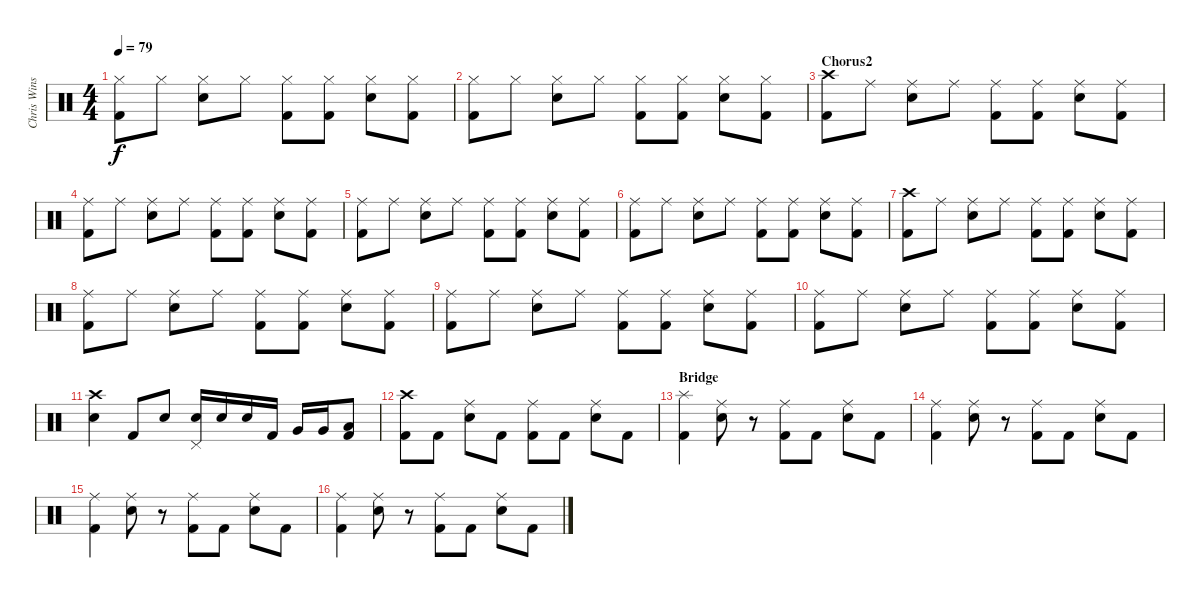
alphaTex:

\track ("Chris Winship (Drums)" "Chris Wins") {instrument percussion}
\staff {score}
\articulation defaults
\ts (4 4)
\tempo 79
\clef neutral
\ks c
("Hi-Hat (closed)" "Kick (hit) 2").8{dy f} "Hi-Hat (closed)".8 ("Hi-Hat (closed)" "Snare (hit) 2").8 "Hi-Hat (closed)".8 ("Hi-Hat (closed)" "Kick (hit) 2").8 ("Hi-Hat (closed)" "Kick (hit) 2").8 ("Hi-Hat (closed)" "Snare (hit) 2").8 ("Hi-Hat (closed)" "Kick (hit) 2").8 |
("Hi-Hat (closed)" "Kick (hit) 2").8 "Hi-Hat (closed)".8 ("Hi-Hat (closed)" "Snare (hit) 2").8 "Hi-Hat (closed)".8 ("Hi-Hat (closed)" "Kick (hit) 2").8 ("Hi-Hat (closed)" "Kick (hit) 2").8 ("Hi-Hat (closed)" "Snare (hit) 2").8 ("Hi-Hat (closed)" "Kick (hit) 2").8 |
\section ("" "Chorus2")
("Crash high (hit)" "Kick (hit) 2").8 "Ride (middle)".8 ("Ride (middle)" "Snare (hit) 2").8 "Ride (middle)".8 ("Ride (middle)" "Kick (hit) 2").8 ("Ride (middle)" "Kick (hit) 2").8 ("Ride (middle)" "Snare (hit) 2").8 ("Ride (middle)" "Kick (hit) 2").8 |
("Ride (middle)" "Kick (hit) 2").8 "Ride (middle)".8 ("Ride (middle)" "Snare (hit) 2").8 "Ride (middle)".8 ("Ride (middle)" "Kick (hit) 2").8 ("Ride (middle)" "Kick (hit) 2").8 ("Ride (middle)" "Snare (hit) 2").8 ("Ride (middle)" "Kick (hit) 2").8 |
("Ride (middle)" "Kick (hit) 2").8 "Ride (middle)".8 ("Ride (middle)" "Snare (hit) 2").8 "Ride (middle)".8 ("Ride (middle)" "Kick (hit) 2").8 ("Ride (middle)" "Kick (hit) 2").8 ("Ride (middle)" "Snare (hit) 2").8 ("Ride (middle)" "Kick (hit) 2").8 |
("Ride (middle)" "Kick (hit) 2").8 "Ride (middle)".8 ("Ride (middle)" "Snare (hit) 2").8 "Ride (middle)".8 ("Ride (middle)" "Kick (hit) 2").8 ("Ride (middle)" "Kick (hit) 2").8 ("Ride (middle)" "Snare (hit) 2").8 ("Ride (middle)" "Kick (hit) 2").8 |
("Crash high (hit)" "Kick (hit) 2").8 "Ride (middle)".8 ("Ride (middle)" "Snare (hit) 2").8 "Ride (middle)".8 ("Ride (middle)" "Kick (hit) 2").8 ("Ride (middle)" "Kick (hit) 2").8 ("Ride (middle)" "Snare (hit) 2").8 ("Ride (middle)" "Kick (hit) 2").8 |
("Ride (middle)" "Kick (hit) 2").8 "Ride (middle)".8 ("Ride (middle)" "Snare (hit) 2").8 "Ride (middle)".8 ("Ride (middle)" "Kick (hit) 2").8 ("Ride (middle)" "Kick (hit) 2").8 ("Ride (middle)" "Snare (hit) 2").8 ("Ride (middle)" "Kick (hit) 2").8 |
("Ride (middle)" "Kick (hit) 2").8 "Ride (middle)".8 ("Ride (middle)" "Snare (hit) 2").8 "Ride (middle)".8 ("Ride (middle)" "Kick (hit) 2").8 ("Ride (middle)" "Kick (hit) 2").8 ("Ride (middle)" "Snare (hit) 2").8 ("Ride (middle)" "Kick (hit) 2").8 |
("Ride (middle)" "Kick (hit) 2").8 "Ride (middle)".8 ("Ride (middle)" "Snare (hit) 2").8 "Ride (middle)".8 ("Ride (middle)" "Kick (hit) 2").8 ("Ride (middle)" "Kick (hit) 2").8 ("Ride (middle)" "Snare (hit) 2").8 ("Ride (middle)" "Kick (hit) 2").8 |
("Snare (hit) 2" "Crash high (hit)").4 "Kick (hit) 2".8 "Snare (hit) 2".8 ("Pedal Hi-Hat (hit)" "Snare (hit) 2").16 "Snare (hit) 2".16 "Snare (hit) 2".16 "Kick (hit) 2".16 "Very Low Tom (hit)".16 "Very Low Tom (hit)".16 ("Low Floor Tom (hit)" "Kick (hit) 2").8 |
("Crash high (hit)" "Kick (hit) 2").8 "Kick (hit) 2".8 ("Ride (middle)" "Snare (hit) 2").8 "Kick (hit) 2".8 ("Ride (middle)" "Kick (hit) 2").8 "Kick (hit) 2".8 ("Ride (middle)" "Snare (hit) 2").8 "Kick (hit) 2".8 |
\section ("" "Bridge")
("Splash (hit)" "Kick (hit) 2").4 ("Ride (middle)" "Snare (hit) 2").8 r.8 ("Ride (middle)" "Kick (hit) 2").8 "Kick (hit) 2".8 ("Ride (middle)" "Snare (hit) 2").8 "Kick (hit) 2".8 |
("Ride (middle)" "Kick (hit) 2").4 ("Ride (middle)" "Snare (hit) 2").8 r.8 ("Ride (middle)" "Kick (hit) 2").8 "Kick (hit) 2".8 ("Ride (middle)" "Snare (hit) 2").8 "Kick (hit) 2".8 |
("Ride (middle)" "Kick (hit) 2").4 ("Ride (middle)" "Snare (hit) 2").8 r.8 ("Ride (middle)" "Kick (hit) 2").8 "Kick (hit) 2".8 ("Ride (middle)" "Snare (hit) 2").8 "Kick (hit) 2".8 |
("Ride (middle)" "Kick (hit) 2").4 ("Ride (middle)" "Snare (hit) 2").8 r.8 ("Ride (middle)" "Kick (hit) 2").8 "Kick (hit) 2".8 ("Ride (middle)" "Snare (hit) 2").8 "Kick (hit) 2".8
